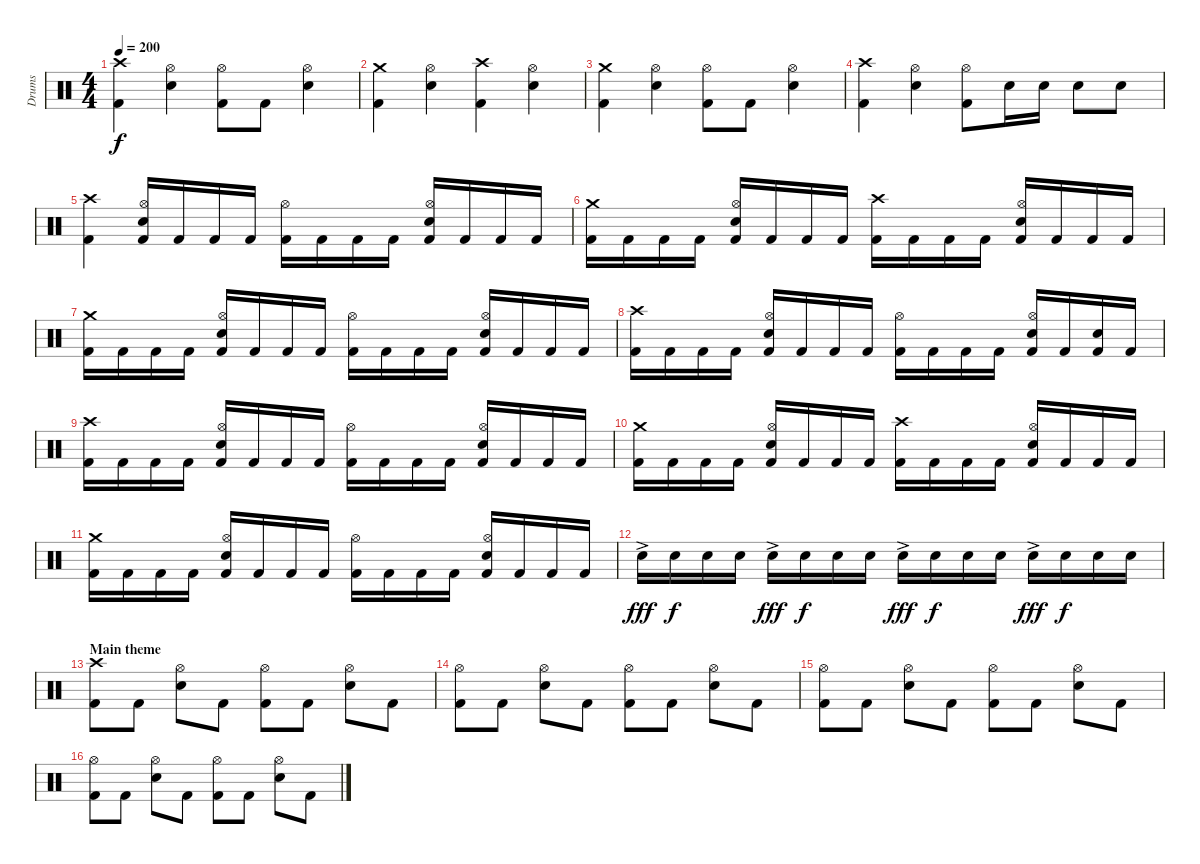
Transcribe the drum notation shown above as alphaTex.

\track ("Drums" "Drums") {instrument percussion}
\staff {score}
\articulation defaults
\ts (4 4)
\tempo 200
\clef neutral
\ks c
("Crash high (hit)" "Kick (hit) 2").4{dy f} ("Hi-Hat (open)" "Electric Snare (hit)").4 ("Hi-Hat (open)" "Kick (hit) 2").8 "Kick (hit) 2".8 ("Hi-Hat (open)" "Electric Snare (hit)").4 |
("Crash medium (hit)" "Kick (hit) 2").4 ("Hi-Hat (open)" "Electric Snare (hit)").4 ("Crash high (hit)" "Kick (hit) 2").4 ("Hi-Hat (open)" "Electric Snare (hit)").4 |
("Crash medium (hit)" "Kick (hit) 2").4 ("Hi-Hat (open)" "Electric Snare (hit)").4 ("Hi-Hat (open)" "Kick (hit) 2").8 "Kick (hit) 2".8 ("Hi-Hat (open)" "Electric Snare (hit)").4 |
("Crash high (hit)" "Kick (hit) 2").4 ("Hi-Hat (open)" "Electric Snare (hit)").4 ("Hi-Hat (open)" "Kick (hit) 2").8 "Electric Snare (hit)".16 "Electric Snare (hit)".16 "Electric Snare (hit)".8 "Electric Snare (hit)".8 |
("Crash high (hit)" "Kick (hit) 2").4 ("Hi-Hat (open)" "Electric Snare (hit)" "Kick (hit) 2").16 "Kick (hit) 2".16 "Kick (hit) 2".16 "Kick (hit) 2".16 ("Hi-Hat (open)" "Kick (hit) 2").16 "Kick (hit) 2".16 "Kick (hit) 2".16 "Kick (hit) 2".16 ("Hi-Hat (open)" "Electric Snare (hit)" "Kick (hit) 2").16 "Kick (hit) 2".16 "Kick (hit) 2".16 "Kick (hit) 2".16 |
("Crash medium (hit)" "Kick (hit) 2").16 "Kick (hit) 2".16 "Kick (hit) 2".16 "Kick (hit) 2".16 ("Hi-Hat (open)" "Electric Snare (hit)" "Kick (hit) 2").16 "Kick (hit) 2".16 "Kick (hit) 2".16 "Kick (hit) 2".16 ("Crash high (hit)" "Kick (hit) 2").16 "Kick (hit) 2".16 "Kick (hit) 2".16 "Kick (hit) 2".16 ("Hi-Hat (open)" "Electric Snare (hit)" "Kick (hit) 2").16 "Kick (hit) 2".16 "Kick (hit) 2".16 "Kick (hit) 2".16 |
("Crash medium (hit)" "Kick (hit) 2").16 "Kick (hit) 2".16 "Kick (hit) 2".16 "Kick (hit) 2".16 ("Hi-Hat (open)" "Electric Snare (hit)" "Kick (hit) 2").16 "Kick (hit) 2".16 "Kick (hit) 2".16 "Kick (hit) 2".16 ("Hi-Hat (open)" "Kick (hit) 2").16 "Kick (hit) 2".16 "Kick (hit) 2".16 "Kick (hit) 2".16 ("Hi-Hat (open)" "Electric Snare (hit)" "Kick (hit) 2").16 "Kick (hit) 2".16 "Kick (hit) 2".16 "Kick (hit) 2".16 |
("Crash high (hit)" "Kick (hit) 2").16 "Kick (hit) 2".16 "Kick (hit) 2".16 "Kick (hit) 2".16 ("Hi-Hat (open)" "Electric Snare (hit)" "Kick (hit) 2").16 "Kick (hit) 2".16 "Kick (hit) 2".16 "Kick (hit) 2".16 ("Hi-Hat (open)" "Kick (hit) 2").16 "Kick (hit) 2".16 "Kick (hit) 2".16 "Kick (hit) 2".16 ("Hi-Hat (open)" "Electric Snare (hit)" "Kick (hit) 2").16 "Kick (hit) 2".16 ("Electric Snare (hit)" "Kick (hit) 2").16 "Kick (hit) 2".16 |
("Crash high (hit)" "Kick (hit) 2").16 "Kick (hit) 2".16 "Kick (hit) 2".16 "Kick (hit) 2".16 ("Hi-Hat (open)" "Electric Snare (hit)" "Kick (hit) 2").16 "Kick (hit) 2".16 "Kick (hit) 2".16 "Kick (hit) 2".16 ("Hi-Hat (open)" "Kick (hit) 2").16 "Kick (hit) 2".16 "Kick (hit) 2".16 "Kick (hit) 2".16 ("Hi-Hat (open)" "Electric Snare (hit)" "Kick (hit) 2").16 "Kick (hit) 2".16 "Kick (hit) 2".16 "Kick (hit) 2".16 |
("Crash medium (hit)" "Kick (hit) 2").16 "Kick (hit) 2".16 "Kick (hit) 2".16 "Kick (hit) 2".16 ("Hi-Hat (open)" "Electric Snare (hit)" "Kick (hit) 2").16 "Kick (hit) 2".16 "Kick (hit) 2".16 "Kick (hit) 2".16 ("Crash high (hit)" "Kick (hit) 2").16 "Kick (hit) 2".16 "Kick (hit) 2".16 "Kick (hit) 2".16 ("Hi-Hat (open)" "Electric Snare (hit)" "Kick (hit) 2").16 "Kick (hit) 2".16 "Kick (hit) 2".16 "Kick (hit) 2".16 |
("Crash medium (hit)" "Kick (hit) 2").16 "Kick (hit) 2".16 "Kick (hit) 2".16 "Kick (hit) 2".16 ("Hi-Hat (open)" "Electric Snare (hit)" "Kick (hit) 2").16 "Kick (hit) 2".16 "Kick (hit) 2".16 "Kick (hit) 2".16 ("Hi-Hat (open)" "Kick (hit) 2").16 "Kick (hit) 2".16 "Kick (hit) 2".16 "Kick (hit) 2".16 ("Hi-Hat (open)" "Electric Snare (hit)" "Kick (hit) 2").16 "Kick (hit) 2".16 "Kick (hit) 2".16 "Kick (hit) 2".16 |
"Electric Snare (hit)"{ac}.16{dy fff} "Electric Snare (hit)".16{dy f} "Electric Snare (hit)".16 "Electric Snare (hit)".16 "Electric Snare (hit)"{ac}.16{dy fff} "Electric Snare (hit)".16{dy f} "Electric Snare (hit)".16 "Electric Snare (hit)".16 "Electric Snare (hit)"{ac}.16{dy fff} "Electric Snare (hit)".16{dy f} "Electric Snare (hit)".16 "Electric Snare (hit)".16 "Electric Snare (hit)"{ac}.16{dy fff} "Electric Snare (hit)".16{dy f} "Electric Snare (hit)".16 "Electric Snare (hit)".16 |
\section ("" "Main theme")
("Crash high (hit)" "Kick (hit) 2").8 "Kick (hit) 2".8 ("Hi-Hat (open)" "Electric Snare (hit)").8 "Kick (hit) 2".8 ("Hi-Hat (open)" "Kick (hit) 2").8 "Kick (hit) 2".8 ("Hi-Hat (open)" "Electric Snare (hit)").8 "Kick (hit) 2".8 |
("Hi-Hat (open)" "Kick (hit) 2").8 "Kick (hit) 2".8 ("Hi-Hat (open)" "Electric Snare (hit)").8 "Kick (hit) 2".8 ("Hi-Hat (open)" "Kick (hit) 2").8 "Kick (hit) 2".8 ("Hi-Hat (open)" "Electric Snare (hit)").8 "Kick (hit) 2".8 |
("Hi-Hat (open)" "Kick (hit) 2").8 "Kick (hit) 2".8 ("Hi-Hat (open)" "Electric Snare (hit)").8 "Kick (hit) 2".8 ("Hi-Hat (open)" "Kick (hit) 2").8 "Kick (hit) 2".8 ("Hi-Hat (open)" "Electric Snare (hit)").8 "Kick (hit) 2".8 |
("Hi-Hat (open)" "Kick (hit) 2").8 "Kick (hit) 2".8 ("Hi-Hat (open)" "Electric Snare (hit)").8 "Kick (hit) 2".8 ("Hi-Hat (open)" "Kick (hit) 2").8 "Kick (hit) 2".8 ("Hi-Hat (open)" "Electric Snare (hit)").8 "Kick (hit) 2".8
